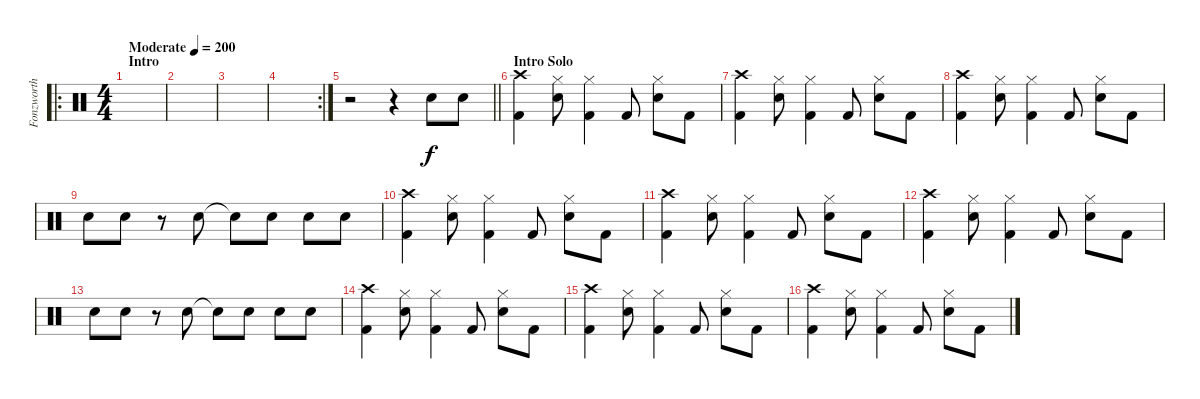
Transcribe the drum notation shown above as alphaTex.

\track ("Fonzworth Fred" "Fonzworth ") {instrument percussion}
\staff {score}
\articulation defaults
\ro
\ts (4 4)
\section ("" "Intro")
\tempo (200 "Moderate")
\clef neutral
\ks c
|
|
|
\rc 2
|
\barLineRight lightlight
r.2 r.4 "Snare (hit) 2".8 "Snare (hit) 2".8 |
\section ("" "Intro Solo")
("Crash high (hit)" "Kick (hit) 2").4 ("Hi-Hat (closed)" "Snare (hit) 2").8 ("Hi-Hat (closed)" "Kick (hit) 2").4 "Kick (hit) 2".8 ("Hi-Hat (closed)" "Snare (hit) 2").8 "Kick (hit) 2".8 |
("Crash high (hit)" "Kick (hit) 2").4 ("Hi-Hat (closed)" "Snare (hit) 2").8 ("Hi-Hat (closed)" "Kick (hit) 2").4 "Kick (hit) 2".8 ("Hi-Hat (closed)" "Snare (hit) 2").8 "Kick (hit) 2".8 |
("Crash high (hit)" "Kick (hit) 2").4 ("Hi-Hat (closed)" "Snare (hit) 2").8 ("Hi-Hat (closed)" "Kick (hit) 2").4 "Kick (hit) 2".8 ("Hi-Hat (closed)" "Snare (hit) 2").8 "Kick (hit) 2".8 |
"Snare (hit) 2".8 "Snare (hit) 2".8 r.8 "Snare (hit) 2".8 "Snare (hit)"{t}.8 "Snare (hit) 2".8 "Snare (hit) 2".8 "Snare (hit) 2".8 |
("Crash high (hit)" "Kick (hit) 2").4 ("Hi-Hat (closed)" "Snare (hit) 2").8 ("Hi-Hat (closed)" "Kick (hit) 2").4 "Kick (hit) 2".8 ("Hi-Hat (closed)" "Snare (hit) 2").8 "Kick (hit) 2".8 |
("Crash high (hit)" "Kick (hit) 2").4 ("Hi-Hat (closed)" "Snare (hit) 2").8 ("Hi-Hat (closed)" "Kick (hit) 2").4 "Kick (hit) 2".8 ("Hi-Hat (closed)" "Snare (hit) 2").8 "Kick (hit) 2".8 |
("Crash high (hit)" "Kick (hit) 2").4 ("Hi-Hat (closed)" "Snare (hit) 2").8 ("Hi-Hat (closed)" "Kick (hit) 2").4 "Kick (hit) 2".8 ("Hi-Hat (closed)" "Snare (hit) 2").8 "Kick (hit) 2".8 |
"Snare (hit) 2".8 "Snare (hit) 2".8 r.8 "Snare (hit) 2".8 "Snare (hit)"{t}.8 "Snare (hit) 2".8 "Snare (hit) 2".8 "Snare (hit) 2".8 |
("Crash high (hit)" "Kick (hit) 2").4 ("Hi-Hat (closed)" "Snare (hit) 2").8 ("Hi-Hat (closed)" "Kick (hit) 2").4 "Kick (hit) 2".8 ("Hi-Hat (closed)" "Snare (hit) 2").8 "Kick (hit) 2".8 |
("Crash high (hit)" "Kick (hit) 2").4 ("Hi-Hat (closed)" "Snare (hit) 2").8 ("Hi-Hat (closed)" "Kick (hit) 2").4 "Kick (hit) 2".8 ("Hi-Hat (closed)" "Snare (hit) 2").8 "Kick (hit) 2".8 |
("Crash high (hit)" "Kick (hit) 2").4 ("Hi-Hat (closed)" "Snare (hit) 2").8 ("Hi-Hat (closed)" "Kick (hit) 2").4 "Kick (hit) 2".8 ("Hi-Hat (closed)" "Snare (hit) 2").8 "Kick (hit) 2".8
